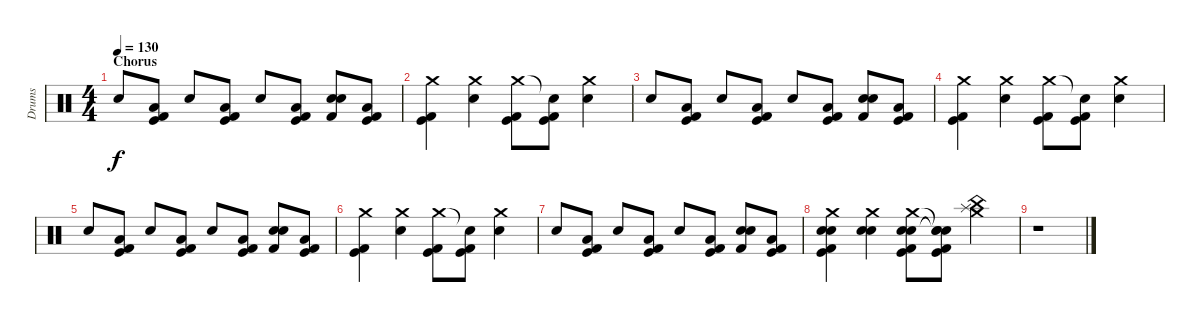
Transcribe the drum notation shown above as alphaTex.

\track ("Drums" "Drums") {instrument percussion}
\staff {score}
\articulation defaults
\ts (4 4)
\section ("" "Chorus")
\tempo 130
\clef neutral
\ks c "Snare (hit) 2".8{dy f}
("Low Floor Tom (hit)" "Kick (hit)" "Kick (hit) 2").8 "Snare (hit) 2".8 ("Low Floor Tom (hit)" "Kick (hit)" "Kick (hit) 2").8 "Snare (hit) 2".8 ("Low Floor Tom (hit)" "Kick (hit)" "Kick (hit) 2").8 ("Electric Snare (hit)" "Snare (hit) 2" "Kick (hit) 2").8 ("Low Floor Tom (hit)" "Kick (hit)" "Kick (hit) 2").8 |
("Crash medium (hit)" "Kick (hit)" "Kick (hit) 2").4 ("Crash medium (hit)" "Snare (hit) 2").4 ("Crash medium (hit)" "Kick (hit)" "Kick (hit) 2").8 ("Snare (hit)"{t} "Kick (hit)" "Kick (hit) 2").8 ("Crash medium (hit)" "Snare (hit) 2").4 |
"Snare (hit) 2".8 ("Low Floor Tom (hit)" "Kick (hit)" "Kick (hit) 2").8 "Snare (hit) 2".8 ("Low Floor Tom (hit)" "Kick (hit)" "Kick (hit) 2").8 "Snare (hit) 2".8 ("Low Floor Tom (hit)" "Kick (hit)" "Kick (hit) 2").8 ("Electric Snare (hit)" "Snare (hit) 2" "Kick (hit) 2").8 ("Low Floor Tom (hit)" "Kick (hit)" "Kick (hit) 2").8 |
("Crash medium (hit)" "Kick (hit)" "Kick (hit) 2").4 ("Crash medium (hit)" "Snare (hit) 2").4 ("Crash medium (hit)" "Kick (hit)" "Kick (hit) 2").8 ("Snare (hit)"{t} "Kick (hit)" "Kick (hit) 2").8 ("Crash medium (hit)" "Snare (hit) 2").4 |
"Snare (hit) 2".8 ("Low Floor Tom (hit)" "Kick (hit)" "Kick (hit) 2").8 "Snare (hit) 2".8 ("Low Floor Tom (hit)" "Kick (hit)" "Kick (hit) 2").8 "Snare (hit) 2".8 ("Low Floor Tom (hit)" "Kick (hit)" "Kick (hit) 2").8 ("Electric Snare (hit)" "Snare (hit) 2" "Kick (hit) 2").8 ("Low Floor Tom (hit)" "Kick (hit)" "Kick (hit) 2").8 |
("Crash medium (hit)" "Kick (hit)" "Kick (hit) 2").4 ("Crash medium (hit)" "Snare (hit) 2").4 ("Crash medium (hit)" "Kick (hit)" "Kick (hit) 2").8 ("Snare (hit)"{t} "Kick (hit)" "Kick (hit) 2").8 ("Crash medium (hit)" "Snare (hit) 2").4 |
"Snare (hit) 2".8 ("Low Floor Tom (hit)" "Kick (hit)" "Kick (hit) 2").8 "Snare (hit) 2".8 ("Low Floor Tom (hit)" "Kick (hit)" "Kick (hit) 2").8 "Snare (hit) 2".8 ("Low Floor Tom (hit)" "Kick (hit)" "Kick (hit) 2").8 ("Electric Snare (hit)" "Snare (hit) 2" "Kick (hit) 2").8 ("Low Floor Tom (hit)" "Kick (hit)" "Kick (hit) 2").8 |
("Electric Snare (hit)" "Crash medium (hit)" "Snare (hit) 2" "Kick (hit)" "Kick (hit) 2").4 ("Electric Snare (hit)" "Crash medium (hit)" "Snare (hit) 2").4 ("Electric Snare (hit)" "Crash medium (hit)" "Snare (hit) 2" "Kick (hit)" "Kick (hit) 2").8 ("Snare (hit)"{t} "Snare (hit)"{t} "Snare (hit)"{t} "Kick (hit)" "Kick (hit) 2").8 ("China (hit)" "Splash (hit)" "Crash medium (hit)").4 |
r.1
